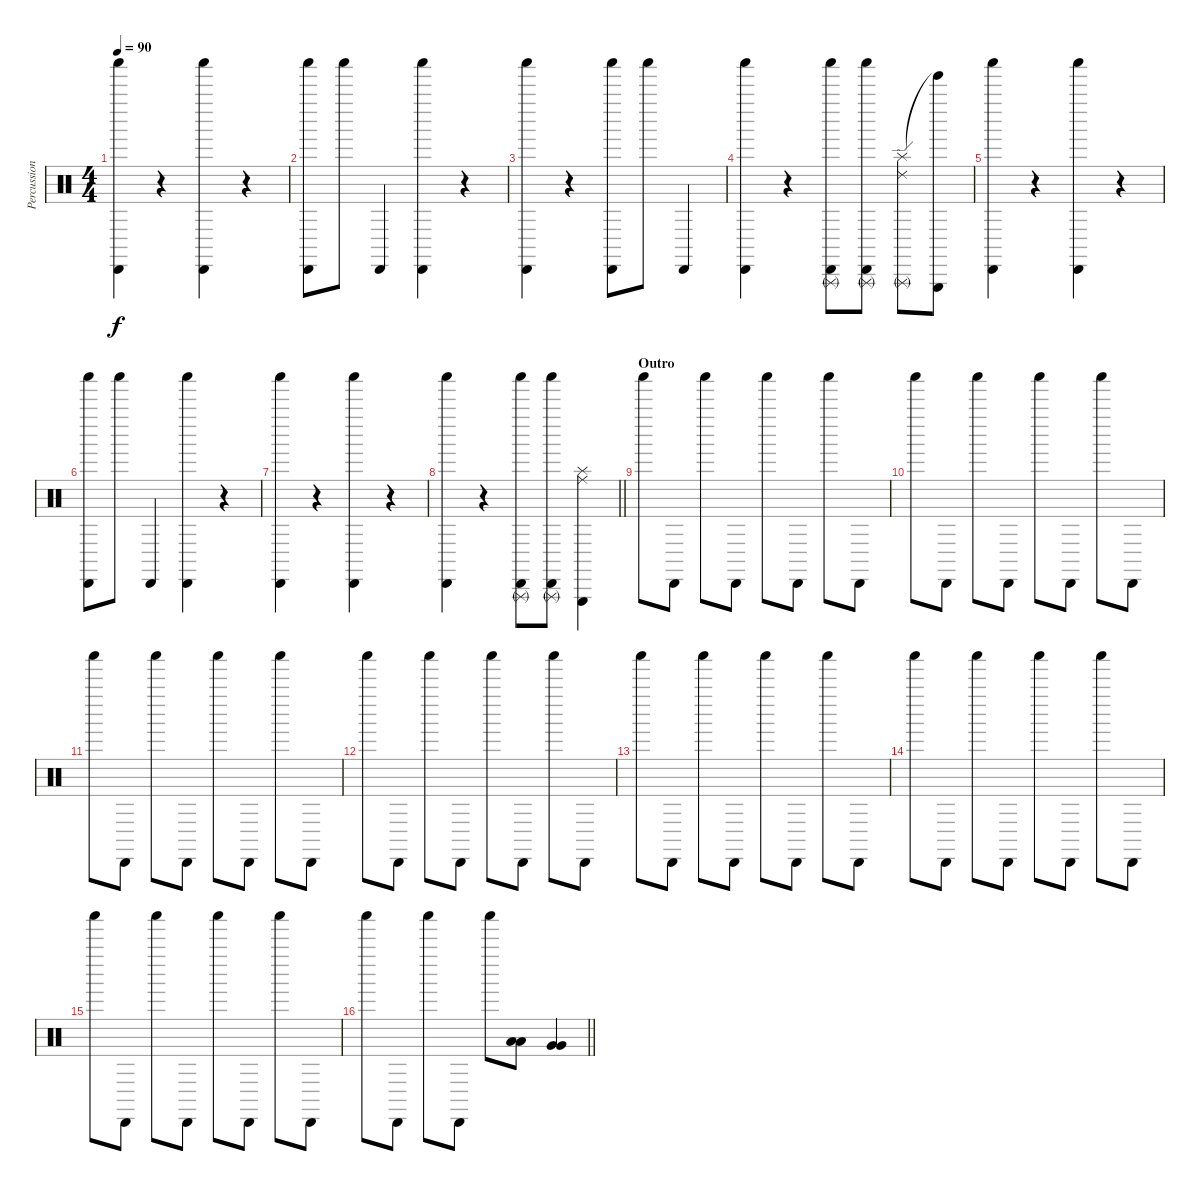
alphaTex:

\track ("Percussion" "Percussion") {instrument percussion}
\staff {score}
\articulation defaults
\ts (4 4)
\tempo 90
\clef neutral
\ks c
("Shaker (hit)" "Cabasa (hit)").4{dy f} r.4 ("Shaker (hit)" "Cabasa (hit)").4 r.4 |
("Shaker (hit)" "Cabasa (hit)").8 "Shaker (hit)".8 "Cabasa (hit)".4 ("Shaker (hit)" "Cabasa (hit)").4 r.4 |
("Shaker (hit)" "Cabasa (hit)").4 r.4 ("Shaker (hit)" "Cabasa (hit)").8 "Shaker (hit)".8 "Cabasa (hit)".4 |
("Shaker (hit)" "Cabasa (hit)").4 r.4 ("Shaker (hit)" "Cabasa (hit)" "Triangle (rnute)").8 ("Shaker (hit)" "Cabasa (hit)" "Triangle (rnute)").8 ("Splash (hit)" "Ride (edge) 2" "Triangle (rnute)").8 ("Tinkle Bell (hit)"{t} "Triangle (hit)").8 |
("Shaker (hit)" "Cabasa (hit)").4 r.4 ("Shaker (hit)" "Cabasa (hit)").4 r.4 |
("Shaker (hit)" "Cabasa (hit)").8 "Shaker (hit)".8 "Cabasa (hit)".4 ("Shaker (hit)" "Cabasa (hit)").4 r.4 |
("Shaker (hit)" "Cabasa (hit)").4 r.4 ("Shaker (hit)" "Cabasa (hit)").4 r.4 |
\barLineRight lightlight
("Shaker (hit)" "Cabasa (hit)").4 r.4 ("Shaker (hit)" "Cabasa (hit)" "Triangle (rnute)").8 ("Shaker (hit)" "Cabasa (hit)" "Triangle (rnute)").8 ("Splash (hit)" "Ride (middle)" "Triangle (hit)").4 |
\section ("" "Outro")
"Shaker (hit)".8 "Cabasa (hit)".8 "Shaker (hit)".8 "Cabasa (hit)".8 "Shaker (hit)".8 "Cabasa (hit)".8 "Shaker (hit)".8 "Cabasa (hit)".8 |
"Shaker (hit)".8 "Cabasa (hit)".8 "Shaker (hit)".8 "Cabasa (hit)".8 "Shaker (hit)".8 "Cabasa (hit)".8 "Shaker (hit)".8 "Cabasa (hit)".8 |
"Shaker (hit)".8 "Cabasa (hit)".8 "Shaker (hit)".8 "Cabasa (hit)".8 "Shaker (hit)".8 "Cabasa (hit)".8 "Shaker (hit)".8 "Cabasa (hit)".8 |
"Shaker (hit)".8 "Cabasa (hit)".8 "Shaker (hit)".8 "Cabasa (hit)".8 "Shaker (hit)".8 "Cabasa (hit)".8 "Shaker (hit)".8 "Cabasa (hit)".8 |
"Shaker (hit)".8 "Cabasa (hit)".8 "Shaker (hit)".8 "Cabasa (hit)".8 "Shaker (hit)".8 "Cabasa (hit)".8 "Shaker (hit)".8 "Cabasa (hit)".8 |
"Shaker (hit)".8 "Cabasa (hit)".8 "Shaker (hit)".8 "Cabasa (hit)".8 "Shaker (hit)".8 "Cabasa (hit)".8 "Shaker (hit)".8 "Cabasa (hit)".8 |
"Shaker (hit)".8 "Cabasa (hit)".8 "Shaker (hit)".8 "Cabasa (hit)".8 "Shaker (hit)".8 "Cabasa (hit)".8 "Shaker (hit)".8 "Cabasa (hit)".8 |
\barLineRight lightlight "Shaker (hit)".8 "Cabasa (hit)".8 "Shaker (hit)".8 "Cabasa (hit)".8 "Shaker (hit)".8
("Low Tom (hit)" "Low Tom (hit)").8{volume 14} ("Very Low Tom (hit)" "Very Low Tom (hit)").4
